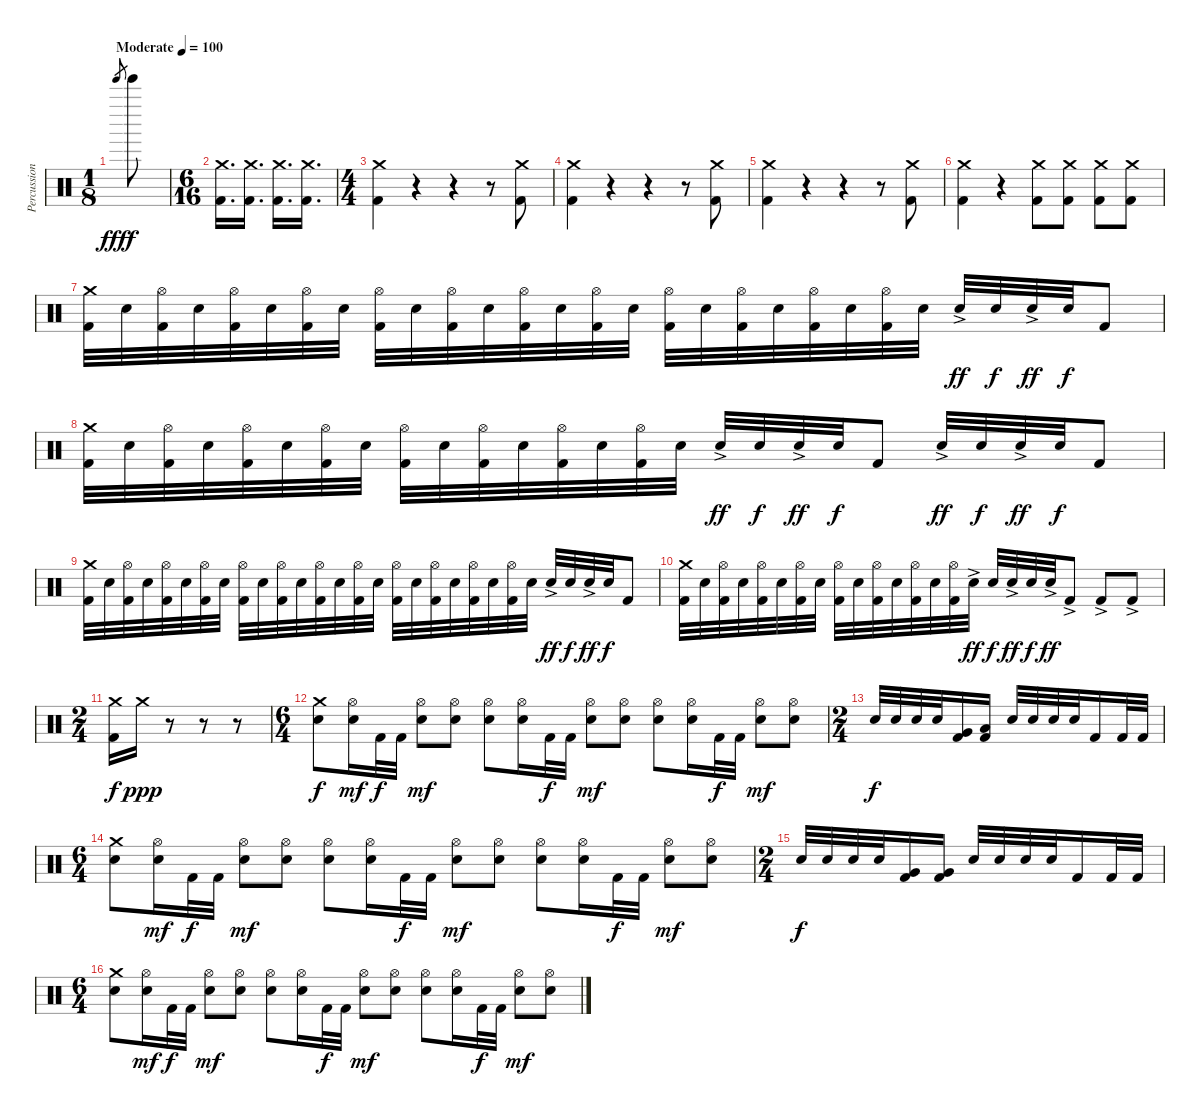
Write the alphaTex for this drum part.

\track ("Percussion" "Percussion") {instrument percussion}
\staff {score}
\articulation defaults
\ts (1 8)
\tempo (100 "Moderate")
\clef neutral
\ks c "Tinkle Bell (hit)"{sl}.8{gr dy fff} "Tinkle Bell (hit)".8{dy f}
|
\ts (6 16)
("Crash medium (hit)" "Kick (hit) 2").16{d} ("Crash medium (hit)" "Kick (hit) 2").16{d} ("Crash medium (hit)" "Kick (hit) 2").16{d} ("Crash medium (hit)" "Kick (hit) 2").16{d} |
\ts (4 4)
("Crash medium (hit)" "Kick (hit) 2").4 r.4 r.4 r.8 ("Crash medium (hit)" "Kick (hit) 2").8 |
("Crash medium (hit)" "Kick (hit) 2").4 r.4 r.4 r.8 ("Crash medium (hit)" "Kick (hit) 2").8 |
("Crash medium (hit)" "Kick (hit) 2").4 r.4 r.4 r.8 ("Crash medium (hit)" "Kick (hit) 2").8 |
("Crash medium (hit)" "Kick (hit) 2").4 r.4 ("Crash medium (hit)" "Kick (hit) 2").8 ("Crash medium (hit)" "Kick (hit) 2").8 ("Crash medium (hit)" "Kick (hit) 2").8 ("Crash medium (hit)" "Kick (hit) 2").8 |
("Crash medium (hit)" "Kick (hit) 2").32 "Electric Snare (hit)".32 ("Hi-Hat (open)" "Kick (hit) 2").32 "Electric Snare (hit)".32 ("Hi-Hat (open)" "Kick (hit) 2").32 "Electric Snare (hit)".32 ("Hi-Hat (open)" "Kick (hit) 2").32 "Electric Snare (hit)".32 ("Hi-Hat (open)" "Kick (hit) 2").32 "Electric Snare (hit)".32 ("Hi-Hat (open)" "Kick (hit) 2").32 "Electric Snare (hit)".32 ("Hi-Hat (open)" "Kick (hit) 2").32 "Electric Snare (hit)".32 ("Hi-Hat (open)" "Kick (hit) 2").32 "Electric Snare (hit)".32 ("Hi-Hat (open)" "Kick (hit) 2").32 "Electric Snare (hit)".32 ("Hi-Hat (open)" "Kick (hit) 2").32 "Electric Snare (hit)".32 ("Hi-Hat (open)" "Kick (hit) 2").32 "Electric Snare (hit)".32 ("Hi-Hat (open)" "Kick (hit) 2").32 "Electric Snare (hit)".32 "Electric Snare (hit)"{ac}.32{dy ff} "Electric Snare (hit)".32{dy f} "Electric Snare (hit)"{ac}.32{dy ff} "Electric Snare (hit)".32{dy f} "Kick (hit) 2".8 |
("Crash medium (hit)" "Kick (hit) 2").32 "Electric Snare (hit)".32 ("Hi-Hat (open)" "Kick (hit) 2").32 "Electric Snare (hit)".32 ("Hi-Hat (open)" "Kick (hit) 2").32 "Electric Snare (hit)".32 ("Hi-Hat (open)" "Kick (hit) 2").32 "Electric Snare (hit)".32 ("Hi-Hat (open)" "Kick (hit) 2").32 "Electric Snare (hit)".32 ("Hi-Hat (open)" "Kick (hit) 2").32 "Electric Snare (hit)".32 ("Hi-Hat (open)" "Kick (hit) 2").32 "Electric Snare (hit)".32 ("Hi-Hat (open)" "Kick (hit) 2").32 "Electric Snare (hit)".32 "Electric Snare (hit)"{ac}.32{dy ff} "Electric Snare (hit)".32{dy f} "Electric Snare (hit)"{ac}.32{dy ff} "Electric Snare (hit)".32{dy f} "Kick (hit) 2".8 "Electric Snare (hit)"{ac}.32{dy ff} "Electric Snare (hit)".32{dy f} "Electric Snare (hit)"{ac}.32{dy ff} "Electric Snare (hit)".32{dy f} "Kick (hit) 2".8 |
("Crash medium (hit)" "Kick (hit) 2").32 "Electric Snare (hit)".32 ("Hi-Hat (open)" "Kick (hit) 2").32 "Electric Snare (hit)".32 ("Hi-Hat (open)" "Kick (hit) 2").32 "Electric Snare (hit)".32 ("Hi-Hat (open)" "Kick (hit) 2").32 "Electric Snare (hit)".32 ("Hi-Hat (open)" "Kick (hit) 2").32 "Electric Snare (hit)".32 ("Hi-Hat (open)" "Kick (hit) 2").32 "Electric Snare (hit)".32 ("Hi-Hat (open)" "Kick (hit) 2").32 "Electric Snare (hit)".32 ("Hi-Hat (open)" "Kick (hit) 2").32 "Electric Snare (hit)".32 ("Hi-Hat (open)" "Kick (hit) 2").32 "Electric Snare (hit)".32 ("Hi-Hat (open)" "Kick (hit) 2").32 "Electric Snare (hit)".32 ("Hi-Hat (open)" "Kick (hit) 2").32 "Electric Snare (hit)".32 ("Hi-Hat (open)" "Kick (hit) 2").32 "Electric Snare (hit)".32 "Electric Snare (hit)"{ac}.32{dy ff} "Electric Snare (hit)".32{dy f} "Electric Snare (hit)"{ac}.32{dy ff} "Electric Snare (hit)".32{dy f} "Kick (hit) 2".8 |
("Crash medium (hit)" "Kick (hit) 2").32 "Electric Snare (hit)".32 ("Hi-Hat (open)" "Kick (hit) 2").32 "Electric Snare (hit)".32 ("Hi-Hat (open)" "Kick (hit) 2").32 "Electric Snare (hit)".32 ("Hi-Hat (open)" "Kick (hit) 2").32 "Electric Snare (hit)".32 ("Hi-Hat (open)" "Kick (hit) 2").32 "Electric Snare (hit)".32 ("Hi-Hat (open)" "Kick (hit) 2").32 "Electric Snare (hit)".32 ("Hi-Hat (open)" "Kick (hit) 2").32 "Electric Snare (hit)".32 ("Hi-Hat (open)" "Kick (hit) 2").32 "Electric Snare (hit)"{ac}.32{dy ff} "Electric Snare (hit)".32{dy f} "Electric Snare (hit)"{ac}.32{dy ff} "Electric Snare (hit)".32{dy f} "Electric Snare (hit)"{ac}.32{dy ff} "Kick (hit) 2"{ac}.8 "Kick (hit) 2"{ac}.8 "Kick (hit) 2"{ac}.8 |
\ts (2 4)
("Crash medium (hit)" "Kick (hit) 2").16{dy f} "Crash medium (hit)".16{dy ppp} r.8 r.8 r.8 |
\ts (6 4)
("Crash medium (hit)" "Electric Snare (hit)").8{dy f} ("Hi-Hat (open)" "Electric Snare (hit)").16{dy mf} "Kick (hit) 2".32{dy f} "Kick (hit) 2".32 ("Hi-Hat (open)" "Electric Snare (hit)").8{dy mf} ("Hi-Hat (open)" "Electric Snare (hit)").8 ("Hi-Hat (open)" "Electric Snare (hit)").8 ("Hi-Hat (open)" "Electric Snare (hit)").16 "Kick (hit) 2".32{dy f} "Kick (hit) 2".32 ("Hi-Hat (open)" "Electric Snare (hit)").8{dy mf} ("Hi-Hat (open)" "Electric Snare (hit)").8 ("Hi-Hat (open)" "Electric Snare (hit)").8 ("Hi-Hat (open)" "Electric Snare (hit)").16 "Kick (hit) 2".32{dy f} "Kick (hit) 2".32 ("Hi-Hat (open)" "Electric Snare (hit)").8{dy mf} ("Hi-Hat (open)" "Electric Snare (hit)").8 |
\ts (2 4)
"Electric Snare (hit)".32{dy f} "Electric Snare (hit)".32 "Electric Snare (hit)".32 "Electric Snare (hit)".32 ("Very Low Tom (hit)" "Kick (hit) 2").16 ("Low Floor Tom (hit)" "Kick (hit) 2").16 "Electric Snare (hit)".32 "Electric Snare (hit)".32 "Electric Snare (hit)".32 "Electric Snare (hit)".32 "Kick (hit) 2".16 "Kick (hit) 2".32 "Kick (hit) 2".32 |
\ts (6 4)
("Crash medium (hit)" "Electric Snare (hit)").8 ("Hi-Hat (open)" "Electric Snare (hit)").16{dy mf} "Kick (hit) 2".32{dy f} "Kick (hit) 2".32 ("Hi-Hat (open)" "Electric Snare (hit)").8{dy mf} ("Hi-Hat (open)" "Electric Snare (hit)").8 ("Hi-Hat (open)" "Electric Snare (hit)").8 ("Hi-Hat (open)" "Electric Snare (hit)").16 "Kick (hit) 2".32{dy f} "Kick (hit) 2".32 ("Hi-Hat (open)" "Electric Snare (hit)").8{dy mf} ("Hi-Hat (open)" "Electric Snare (hit)").8 ("Hi-Hat (open)" "Electric Snare (hit)").8 ("Hi-Hat (open)" "Electric Snare (hit)").16 "Kick (hit) 2".32{dy f} "Kick (hit) 2".32 ("Hi-Hat (open)" "Electric Snare (hit)").8{dy mf} ("Hi-Hat (open)" "Electric Snare (hit)").8 |
\ts (2 4)
"Electric Snare (hit)".32{dy f} "Electric Snare (hit)".32 "Electric Snare (hit)".32 "Electric Snare (hit)".32 ("Very Low Tom (hit)" "Kick (hit) 2").16 ("Very Low Tom (hit)" "Kick (hit) 2").16 "Electric Snare (hit)".32 "Electric Snare (hit)".32 "Electric Snare (hit)".32 "Electric Snare (hit)".32 "Kick (hit) 2".16 "Kick (hit) 2".32 "Kick (hit) 2".32 |
\ts (6 4)
("Crash medium (hit)" "Electric Snare (hit)").8 ("Hi-Hat (open)" "Electric Snare (hit)").16{dy mf} "Kick (hit) 2".32{dy f} "Kick (hit) 2".32 ("Hi-Hat (open)" "Electric Snare (hit)").8{dy mf} ("Hi-Hat (open)" "Electric Snare (hit)").8 ("Hi-Hat (open)" "Electric Snare (hit)").8 ("Hi-Hat (open)" "Electric Snare (hit)").16 "Kick (hit) 2".32{dy f} "Kick (hit) 2".32 ("Hi-Hat (open)" "Electric Snare (hit)").8{dy mf} ("Hi-Hat (open)" "Electric Snare (hit)").8 ("Hi-Hat (open)" "Electric Snare (hit)").8 ("Hi-Hat (open)" "Electric Snare (hit)").16 "Kick (hit) 2".32{dy f} "Kick (hit) 2".32 ("Hi-Hat (open)" "Electric Snare (hit)").8{dy mf} ("Hi-Hat (open)" "Electric Snare (hit)").8
